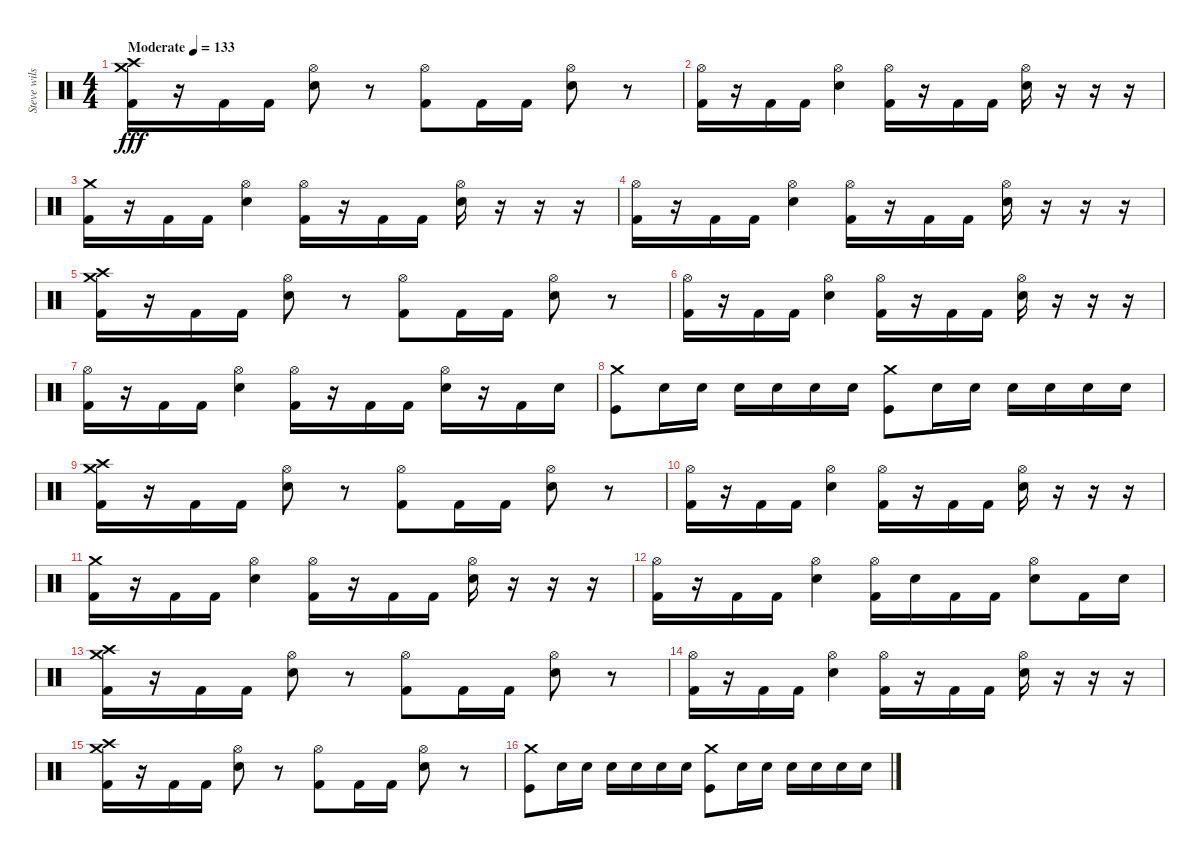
\track ("Steve wilson" "Steve wils") {instrument percussion}
\staff {score}
\articulation defaults
\ts (4 4)
\tempo (133 "Moderate")
\clef neutral
\ks c
("Crash high (hit)" "Crash medium (hit)" "Kick (hit) 2").16{dy fff} r.16 "Kick (hit) 2".16 "Kick (hit) 2".16 ("Hi-Hat (open)" "Electric Snare (hit)").8 r.8 ("Hi-Hat (open)" "Kick (hit) 2").8 "Kick (hit) 2".16 "Kick (hit) 2".16 ("Hi-Hat (open)" "Electric Snare (hit)").8 r.8 |
("Hi-Hat (open)" "Kick (hit) 2").16 r.16 "Kick (hit) 2".16 "Kick (hit) 2".16 ("Hi-Hat (open)" "Electric Snare (hit)").4 ("Hi-Hat (open)" "Kick (hit) 2").16 r.16 "Kick (hit) 2".16 "Kick (hit) 2".16 ("Hi-Hat (open)" "Electric Snare (hit)").16 r.16 r.16 r.16 |
("Crash medium (hit)" "Kick (hit) 2").16 r.16 "Kick (hit) 2".16 "Kick (hit) 2".16 ("Hi-Hat (open)" "Electric Snare (hit)").4 ("Hi-Hat (open)" "Kick (hit) 2").16 r.16 "Kick (hit) 2".16 "Kick (hit) 2".16 ("Hi-Hat (open)" "Electric Snare (hit)").16 r.16 r.16 r.16 |
("Hi-Hat (open)" "Kick (hit) 2").16 r.16 "Kick (hit) 2".16 "Kick (hit) 2".16 ("Hi-Hat (open)" "Electric Snare (hit)").4 ("Hi-Hat (open)" "Kick (hit) 2").16 r.16 "Kick (hit) 2".16 "Kick (hit) 2".16 ("Hi-Hat (open)" "Electric Snare (hit)").16 r.16 r.16 r.16 |
("Crash high (hit)" "Crash medium (hit)" "Kick (hit) 2").16 r.16 "Kick (hit) 2".16 "Kick (hit) 2".16 ("Hi-Hat (open)" "Electric Snare (hit)").8 r.8 ("Hi-Hat (open)" "Kick (hit) 2").8 "Kick (hit) 2".16 "Kick (hit) 2".16 ("Hi-Hat (open)" "Electric Snare (hit)").8 r.8 |
("Hi-Hat (open)" "Kick (hit) 2").16 r.16 "Kick (hit) 2".16 "Kick (hit) 2".16 ("Hi-Hat (open)" "Electric Snare (hit)").4 ("Hi-Hat (open)" "Kick (hit) 2").16 r.16 "Kick (hit) 2".16 "Kick (hit) 2".16 ("Hi-Hat (open)" "Electric Snare (hit)").16 r.16 r.16 r.16 |
("Hi-Hat (open)" "Kick (hit) 2").16 r.16 "Kick (hit) 2".16 "Kick (hit) 2".16 ("Hi-Hat (open)" "Electric Snare (hit)").4 ("Hi-Hat (open)" "Kick (hit) 2").16 r.16 "Kick (hit) 2".16 "Kick (hit) 2".16 ("Hi-Hat (open)" "Electric Snare (hit)").16 r.16 "Kick (hit) 2".16 "Electric Snare (hit)".16 |
("Crash medium (hit)" "Kick (hit)").8 "Electric Snare (hit)".16 "Electric Snare (hit)".16 "Electric Snare (hit)".16 "Electric Snare (hit)".16 "Electric Snare (hit)".16 "Electric Snare (hit)".16 ("Crash medium (hit)" "Kick (hit)").8 "Electric Snare (hit)".16 "Electric Snare (hit)".16 "Electric Snare (hit)".16 "Electric Snare (hit)".16 "Electric Snare (hit)".16 "Electric Snare (hit)".16 |
("Crash high (hit)" "Crash medium (hit)" "Kick (hit) 2").16 r.16 "Kick (hit) 2".16 "Kick (hit) 2".16 ("Hi-Hat (open)" "Electric Snare (hit)").8 r.8 ("Hi-Hat (open)" "Kick (hit) 2").8 "Kick (hit) 2".16 "Kick (hit) 2".16 ("Hi-Hat (open)" "Electric Snare (hit)").8 r.8 |
("Hi-Hat (open)" "Kick (hit) 2").16 r.16 "Kick (hit) 2".16 "Kick (hit) 2".16 ("Hi-Hat (open)" "Electric Snare (hit)").4 ("Hi-Hat (open)" "Kick (hit) 2").16 r.16 "Kick (hit) 2".16 "Kick (hit) 2".16 ("Hi-Hat (open)" "Electric Snare (hit)").16 r.16 r.16 r.16 |
("Crash medium (hit)" "Kick (hit) 2").16 r.16 "Kick (hit) 2".16 "Kick (hit) 2".16 ("Hi-Hat (open)" "Electric Snare (hit)").4 ("Hi-Hat (open)" "Kick (hit) 2").16 r.16 "Kick (hit) 2".16 "Kick (hit) 2".16 ("Hi-Hat (open)" "Electric Snare (hit)").16 r.16 r.16 r.16 |
("Hi-Hat (open)" "Kick (hit) 2").16 r.16 "Kick (hit) 2".16 "Kick (hit) 2".16 ("Hi-Hat (open)" "Electric Snare (hit)").4 ("Hi-Hat (open)" "Kick (hit) 2").16 "Electric Snare (hit)".16 "Kick (hit) 2".16 "Kick (hit) 2".16 ("Hi-Hat (open)" "Electric Snare (hit)").8 "Kick (hit) 2".16 "Electric Snare (hit)".16 |
("Crash high (hit)" "Crash medium (hit)" "Kick (hit) 2").16 r.16 "Kick (hit) 2".16 "Kick (hit) 2".16 ("Hi-Hat (open)" "Electric Snare (hit)").8 r.8 ("Hi-Hat (open)" "Kick (hit) 2").8 "Kick (hit) 2".16 "Kick (hit) 2".16 ("Hi-Hat (open)" "Electric Snare (hit)").8 r.8 |
("Hi-Hat (open)" "Kick (hit) 2").16 r.16 "Kick (hit) 2".16 "Kick (hit) 2".16 ("Hi-Hat (open)" "Electric Snare (hit)").4 ("Hi-Hat (open)" "Kick (hit) 2").16 r.16 "Kick (hit) 2".16 "Kick (hit) 2".16 ("Hi-Hat (open)" "Electric Snare (hit)").16 r.16 r.16 r.16 |
("Crash high (hit)" "Crash medium (hit)" "Kick (hit) 2").16 r.16 "Kick (hit) 2".16 "Kick (hit) 2".16 ("Hi-Hat (open)" "Electric Snare (hit)").8 r.8 ("Hi-Hat (open)" "Kick (hit) 2").8 "Kick (hit) 2".16 "Kick (hit) 2".16 ("Hi-Hat (open)" "Electric Snare (hit)").8 r.8 |
("Crash medium (hit)" "Kick (hit)").8 "Electric Snare (hit)".16 "Electric Snare (hit)".16 "Electric Snare (hit)".16 "Electric Snare (hit)".16 "Electric Snare (hit)".16 "Electric Snare (hit)".16 ("Crash medium (hit)" "Kick (hit)").8 "Electric Snare (hit)".16 "Electric Snare (hit)".16 "Electric Snare (hit)".16 "Electric Snare (hit)".16 "Electric Snare (hit)".16 "Electric Snare (hit)".16
